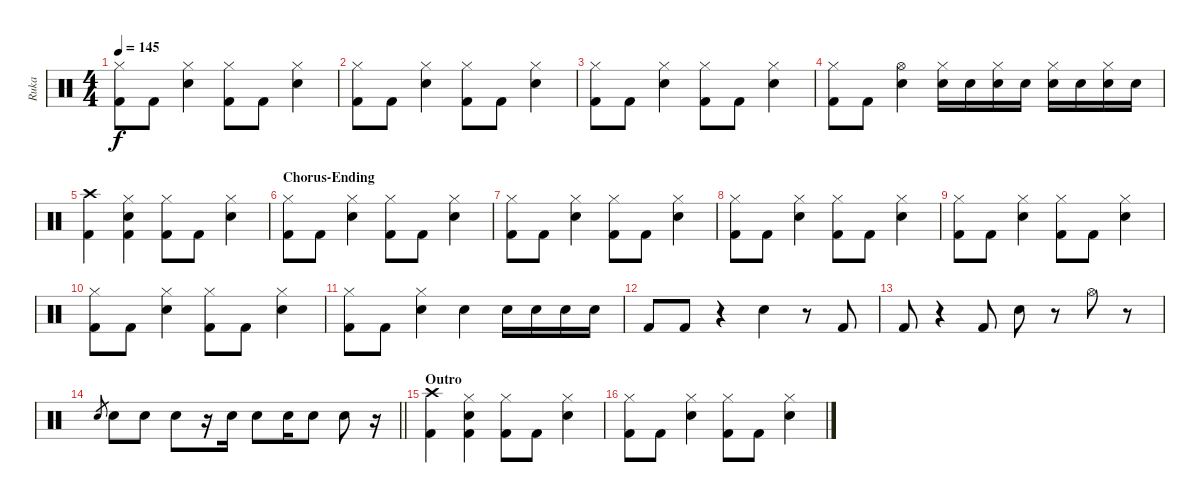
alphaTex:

\track ("Ruka" "Ruka") {instrument percussion}
\staff {score}
\articulation defaults
\ts (4 4)
\tempo 145
\clef neutral
\ks c
("Hi-Hat (closed)" "Kick (hit) 2").8{dy f} "Kick (hit) 2".8 ("Hi-Hat (closed)" "Electric Snare (hit)").4 ("Hi-Hat (closed)" "Kick (hit) 2").8 "Kick (hit) 2".8 ("Hi-Hat (closed)" "Electric Snare (hit)").4 |
("Hi-Hat (closed)" "Kick (hit) 2").8 "Kick (hit) 2".8 ("Hi-Hat (closed)" "Electric Snare (hit)").4 ("Hi-Hat (closed)" "Kick (hit) 2").8 "Kick (hit) 2".8 ("Hi-Hat (closed)" "Electric Snare (hit)").4 |
("Hi-Hat (closed)" "Kick (hit) 2").8 "Kick (hit) 2".8 ("Hi-Hat (closed)" "Electric Snare (hit)").4 ("Hi-Hat (closed)" "Kick (hit) 2").8 "Kick (hit) 2".8 ("Hi-Hat (closed)" "Electric Snare (hit)").4 |
("Hi-Hat (closed)" "Kick (hit) 2").8 "Kick (hit) 2".8 ("Hi-Hat (open)" "Electric Snare (hit)").4 ("Hi-Hat (closed)" "Electric Snare (hit)").16 "Electric Snare (hit)".16 ("Hi-Hat (closed)" "Electric Snare (hit)").16 "Electric Snare (hit)".16 ("Hi-Hat (closed)" "Electric Snare (hit)").16 "Electric Snare (hit)".16 ("Hi-Hat (closed)" "Electric Snare (hit)").16 "Electric Snare (hit)".16 |
("Crash high (hit)" "Kick (hit) 2").4 ("Hi-Hat (closed)" "Electric Snare (hit)" "Kick (hit) 2").4 ("Hi-Hat (closed)" "Kick (hit) 2").8 "Kick (hit) 2".8 ("Hi-Hat (closed)" "Electric Snare (hit)").4 |
\section ("" "Chorus-Ending")
("Hi-Hat (closed)" "Kick (hit) 2").8 "Kick (hit) 2".8 ("Hi-Hat (closed)" "Electric Snare (hit)").4 ("Hi-Hat (closed)" "Kick (hit) 2").8 "Kick (hit) 2".8 ("Hi-Hat (closed)" "Electric Snare (hit)").4 |
("Hi-Hat (closed)" "Kick (hit) 2").8 "Kick (hit) 2".8 ("Hi-Hat (closed)" "Electric Snare (hit)").4 ("Hi-Hat (closed)" "Kick (hit) 2").8 "Kick (hit) 2".8 ("Hi-Hat (closed)" "Electric Snare (hit)").4 |
("Hi-Hat (closed)" "Kick (hit) 2").8 "Kick (hit) 2".8 ("Hi-Hat (closed)" "Electric Snare (hit)").4 ("Hi-Hat (closed)" "Kick (hit) 2").8 "Kick (hit) 2".8 ("Hi-Hat (closed)" "Electric Snare (hit)").4 |
("Hi-Hat (closed)" "Kick (hit) 2").8 "Kick (hit) 2".8 ("Hi-Hat (closed)" "Electric Snare (hit)").4 ("Hi-Hat (closed)" "Kick (hit) 2").8 "Kick (hit) 2".8 ("Hi-Hat (closed)" "Electric Snare (hit)").4 |
("Hi-Hat (closed)" "Kick (hit) 2").8 "Kick (hit) 2".8 ("Hi-Hat (closed)" "Electric Snare (hit)").4 ("Hi-Hat (closed)" "Kick (hit) 2").8 "Kick (hit) 2".8 ("Hi-Hat (closed)" "Electric Snare (hit)").4 |
("Hi-Hat (closed)" "Kick (hit) 2").8 "Kick (hit) 2".8 ("Hi-Hat (closed)" "Electric Snare (hit)").4 "Electric Snare (hit)".4 "Electric Snare (hit)".16 "Electric Snare (hit)".16 "Electric Snare (hit)".16 "Electric Snare (hit)".16 |
"Kick (hit) 2".8 "Kick (hit) 2".8 r.4 "Electric Snare (hit)".4 r.8 "Kick (hit) 2".8 |
"Kick (hit) 2".8 r.4 "Kick (hit) 2".8 "Electric Snare (hit)".8 r.8 "Hi-Hat (open)".8 r.8 |
\barLineRight lightlight "Electric Snare (hit)".8{gr} "Electric Snare (hit)".8 "Electric Snare (hit)".8 "Electric Snare (hit)".8
r.16 "Electric Snare (hit)".16 "Electric Snare (hit)".8 "Electric Snare (hit)".16 "Electric Snare (hit)".8 "Electric Snare (hit)".8 r.16 |
\section ("" "Outro")
("Crash high (hit)" "Kick (hit) 2").4 ("Hi-Hat (closed)" "Electric Snare (hit)" "Kick (hit) 2").4 ("Hi-Hat (closed)" "Kick (hit) 2").8 "Kick (hit) 2".8 ("Hi-Hat (closed)" "Electric Snare (hit)").4 |
("Hi-Hat (closed)" "Kick (hit) 2").8 "Kick (hit) 2".8 ("Hi-Hat (closed)" "Electric Snare (hit)").4 ("Hi-Hat (closed)" "Kick (hit) 2").8 "Kick (hit) 2".8 ("Hi-Hat (closed)" "Electric Snare (hit)").4
